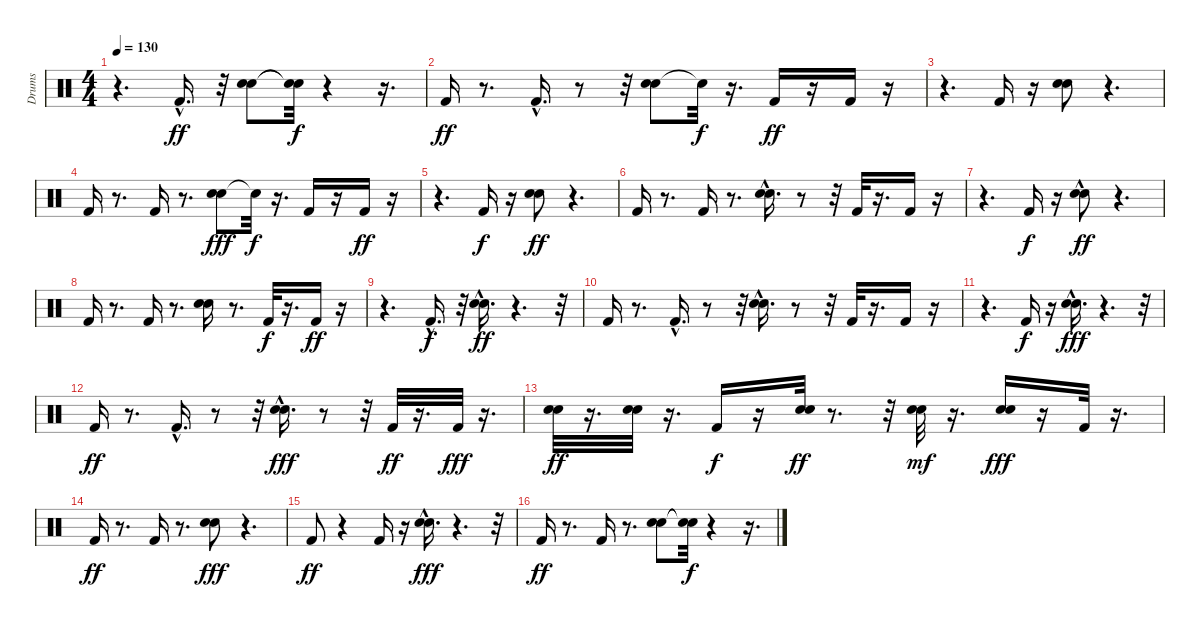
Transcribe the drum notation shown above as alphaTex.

\track ("Drums" "Drums") {instrument percussion}
\staff {score}
\articulation defaults
\ts (4 4)
\tempo 130
\clef neutral
\ks c
r.4{d dy ff} "Kick (hit) 2"{hac}.16{d} r.32 ("Hand Clap (hit)" "Snare (hit) 2").8 ("Snare (hit)"{t} "Snare (hit)"{t}).32{dy f} r.4 r.16{d} |
"Kick (hit) 2".16{dy ff} r.8{d} "Kick (hit) 2"{hac}.16{d} r.8 r.32 ("Hand Clap (hit)" "Snare (hit) 2").8 "Snare (hit)"{t}.32{dy f} r.16{d} "Kick (hit) 2".16{dy ff} r.16 "Kick (hit) 2".16 r.16 |
r.4{d} "Kick (hit) 2".16 r.16 ("Hand Clap (hit)" "Snare (hit) 2").8 r.4{d} |
"Kick (hit) 2".16 r.8{d} "Kick (hit) 2".16 r.8{d} ("Snare (hit) 2" "Hand Clap (hit)").8{dy fff} "Snare (hit)"{t}.32{dy f} r.16{d} "Kick (hit) 2".16 r.16 "Kick (hit) 2".16{dy ff} r.16 |
r.4{d} "Kick (hit) 2".16{dy f} r.16 ("Hand Clap (hit)" "Snare (hit) 2").8{dy ff} r.4{d} |
"Kick (hit) 2".16 r.8{d} "Kick (hit) 2".16 r.8{d} ("Hand Clap (hit)"{hac} "Snare (hit) 2"{hac}).16{d} r.8 r.32 "Kick (hit) 2".32 r.16{d} "Kick (hit) 2".16 r.16 |
r.4{d} "Kick (hit) 2".16{dy f} r.16 ("Hand Clap (hit)"{hac} "Snare (hit) 2").8{dy ff} r.4{d} |
"Kick (hit) 2".16 r.8{d} "Kick (hit) 2".16 r.8{d} ("Hand Clap (hit)" "Snare (hit) 2").16 r.8{d} "Kick (hit) 2".32{dy f} r.16{d} "Kick (hit) 2".16{dy ff} r.16 |
r.4{d} "Kick (hit) 2"{hac}.16{d dy f} r.32 ("Hand Clap (hit)"{hac} "Snare (hit) 2"{hac}).16{d dy ff} r.4{d} r.32 |
"Kick (hit) 2".16 r.8{d} "Kick (hit) 2"{hac}.16{d} r.8 r.32 ("Hand Clap (hit)"{hac} "Snare (hit) 2"{hac}).16{d} r.8 r.32 "Kick (hit) 2".32 r.16{d} "Kick (hit) 2".16 r.16 |
r.4{d} "Kick (hit) 2".16{dy f} r.16 ("Snare (hit) 2"{hac} "Hand Clap (hit)"{hac}).16{d dy fff} r.4{d} r.32 |
"Kick (hit) 2".16{dy ff} r.8{d} "Kick (hit) 2"{hac}.16{d} r.8 r.32 ("Snare (hit) 2"{hac} "Hand Clap (hit)").16{d dy fff} r.8 r.32 "Kick (hit) 2".32{dy ff} r.16{d} "Kick (hit) 2".32{dy fff} r.16{d} |
("Hand Clap (hit)" "Snare (hit) 2").32{dy ff} r.16{d} ("Hand Clap (hit)" "Snare (hit) 2").32 r.16{d} "Kick (hit) 2".16{dy f} r.16 ("Hand Clap (hit)" "Snare (hit) 2").32{dy ff} r.8{d} r.32 ("Hand Clap (hit)" "Snare (hit) 2").32{dy mf} r.16{d} ("Hand Clap (hit)" "Snare (hit) 2").16{dy fff} r.16 "Kick (hit) 2".32 r.16{d} |
"Kick (hit) 2".16{dy ff} r.8{d} "Kick (hit) 2".16 r.8{d} ("Hand Clap (hit)" "Snare (hit) 2").8{dy fff} r.4{d} |
"Kick (hit) 2".8{dy ff} r.4 "Kick (hit) 2".16 r.16 ("Snare (hit) 2"{hac} "Hand Clap (hit)"{hac}).16{d dy fff} r.4{d} r.32 |
"Kick (hit) 2".16{dy ff} r.8{d} "Kick (hit) 2".16 r.8{d} ("Hand Clap (hit)" "Snare (hit) 2").8 ("Snare (hit)"{t} "Snare (hit)"{t}).32{dy f} r.4 r.16{d}
